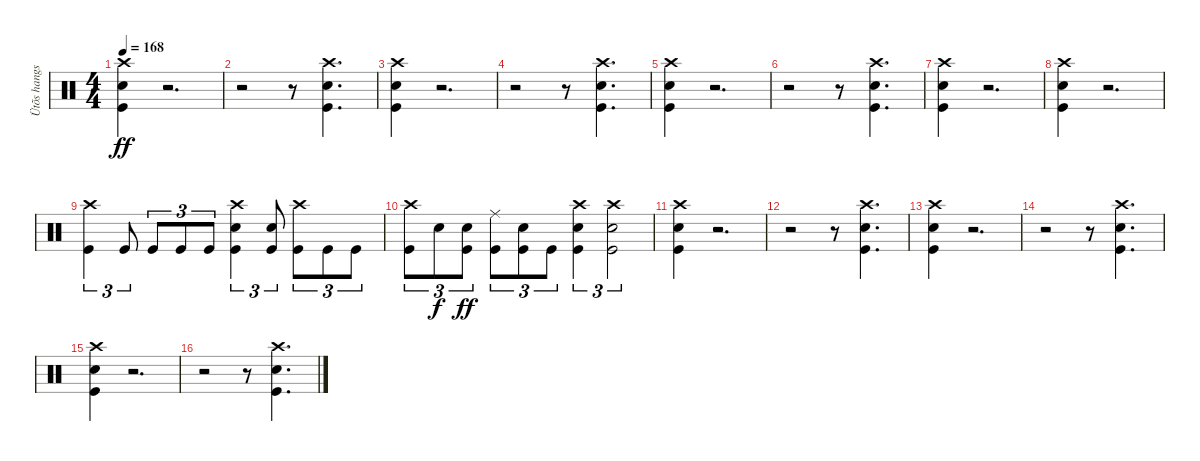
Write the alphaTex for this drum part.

\track ("Ütõs hangszer" "Ütõs hangs") {instrument percussion}
\staff {score}
\articulation defaults
\ts (4 4)
\tempo 168
\clef neutral
\ks c
("Crash high (hit)" "Electric Snare (hit)" "Kick (hit)").4{dy ff} r.2{d} |
r.2 r.8 ("Crash high (hit)" "Electric Snare (hit)" "Kick (hit)").4{d} |
("Crash high (hit)" "Electric Snare (hit)" "Kick (hit)").4 r.2{d} |
r.2 r.8 ("Crash high (hit)" "Electric Snare (hit)" "Kick (hit)").4{d} |
("Crash high (hit)" "Electric Snare (hit)" "Kick (hit)").4 r.2{d} |
r.2 r.8 ("Crash high (hit)" "Electric Snare (hit)" "Kick (hit)").4{d} |
("Crash high (hit)" "Electric Snare (hit)" "Kick (hit)").4 r.2{d} |
("Crash high (hit)" "Electric Snare (hit)" "Kick (hit)").4 r.2{d} |
("Crash high (hit)" "Kick (hit)").4{tu (3 2)} "Kick (hit)".8{tu (3 2)} "Kick (hit)".8{tu (3 2)} "Kick (hit)".8{tu (3 2)} "Kick (hit)".8{tu (3 2)} ("Crash high (hit)" "Electric Snare (hit)" "Kick (hit)").4{tu (3 2)} ("Electric Snare (hit)" "Kick (hit)").8{tu (3 2)} ("Crash high (hit)" "Kick (hit)").8{tu (3 2)} "Kick (hit)".8{tu (3 2)} "Kick (hit)".8{tu (3 2)} |
("Crash high (hit)" "Kick (hit)").8{tu (3 2)} "Electric Snare (hit)".8{tu (3 2) dy f} ("Electric Snare (hit)" "Kick (hit)").8{tu (3 2) dy ff} ("Ride (middle)" "Kick (hit)").8{tu (3 2)} ("Electric Snare (hit)" "Kick (hit)").8{tu (3 2)} "Kick (hit)".8{tu (3 2)} ("Crash high (hit)" "Electric Snare (hit)" "Kick (hit)").4{tu (3 2)} ("Crash high (hit)" "Electric Snare (hit)" "Kick (hit)").2{tu (3 2)} |
("Crash high (hit)" "Electric Snare (hit)" "Kick (hit)").4 r.2{d} |
r.2 r.8 ("Crash high (hit)" "Electric Snare (hit)" "Kick (hit)").4{d} |
("Crash high (hit)" "Electric Snare (hit)" "Kick (hit)").4 r.2{d} |
r.2 r.8 ("Crash high (hit)" "Electric Snare (hit)" "Kick (hit)").4{d} |
("Crash high (hit)" "Electric Snare (hit)" "Kick (hit)").4 r.2{d} |
r.2 r.8 ("Crash high (hit)" "Electric Snare (hit)" "Kick (hit)").4{d}
